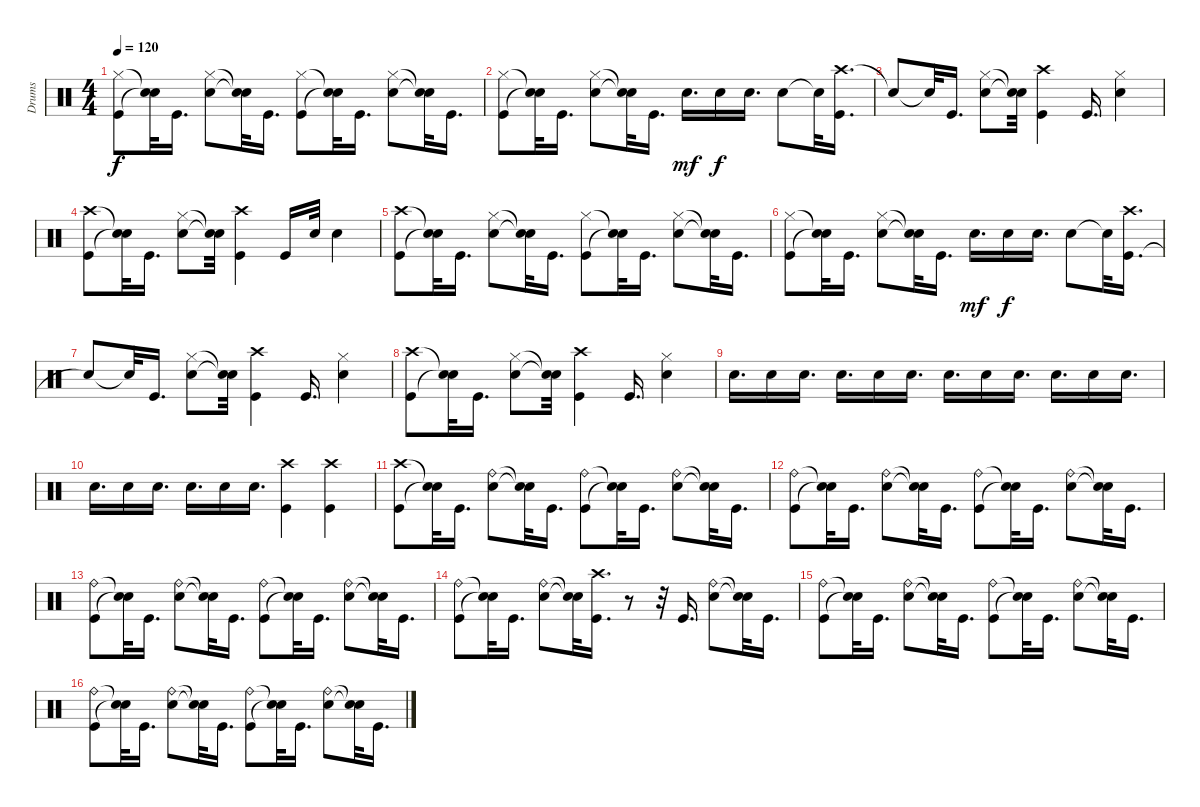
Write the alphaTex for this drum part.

\track ("Drums" "Drums") {instrument percussion}
\staff {score}
\articulation defaults
\ts (4 4)
\tempo 120
\clef neutral
\ks c
("Hi-Hat (closed)" "Kick (hit)").8{dy f} ("Snare (hit)"{t} "Snare (hit)"{t}).32 "Kick (hit)".16{d} ("Hi-Hat (closed)" "Snare (hit) 2").8 ("Snare (hit)"{t} "Snare (hit)"{t}).32 "Kick (hit)".16{d} ("Hi-Hat (closed)" "Kick (hit)").8 ("Snare (hit)"{t} "Snare (hit)"{t}).32 "Kick (hit)".16{d} ("Hi-Hat (closed)" "Snare (hit) 2").8 ("Snare (hit)"{t} "Snare (hit)"{t}).32 "Kick (hit)".16{d} |
("Kick (hit)" "Hi-Hat (closed)").8 ("Snare (hit)"{t} "Snare (hit)"{t}).32 "Kick (hit)".16{d} ("Snare (hit) 2" "Hi-Hat (closed)").8 ("Snare (hit)"{t} "Snare (hit)"{t}).32 "Kick (hit)".16{d} "Snare (hit) 2".16{d dy mf} "Snare (hit) 2".16{dy f} "Snare (hit) 2".16{d} "Snare (hit) 2".8 "Snare (hit)"{t}.32 ("Crash high (hit)" "Kick (hit)").16{d} |
"Snare (hit)"{t}.8 "Snare (hit)"{t}.32 "Kick (hit)".16{d} ("Snare (hit) 2" "Hi-Hat (closed)").8 ("Snare (hit)"{t} "Snare (hit)"{t}).32 ("Kick (hit)" "Crash high (hit)").4 "Kick (hit)".16{d} ("Snare (hit) 2" "Hi-Hat (closed)").4 |
("Kick (hit)" "Crash high (hit)").8 ("Snare (hit)"{t} "Snare (hit)"{t}).32 "Kick (hit)".16{d} ("Hi-Hat (closed)" "Snare (hit) 2").8 ("Snare (hit)"{t} "Snare (hit)"{t}).32 ("Kick (hit)" "Crash high (hit)").4 "Kick (hit)".16 "Snare (hit) 2".32 "Snare (hit) 2".4 |
("Crash high (hit)" "Kick (hit)").8 ("Snare (hit)"{t} "Snare (hit)"{t}).32 "Kick (hit)".16{d} ("Snare (hit) 2" "Hi-Hat (closed)").8 ("Snare (hit)"{t} "Snare (hit)"{t}).32 "Kick (hit)".16{d} ("Hi-Hat (closed)" "Kick (hit)").8 ("Snare (hit)"{t} "Snare (hit)"{t}).32 "Kick (hit)".16{d} ("Hi-Hat (closed)" "Snare (hit) 2").8 ("Snare (hit)"{t} "Snare (hit)"{t}).32 "Kick (hit)".16{d} |
("Kick (hit)" "Hi-Hat (closed)").8 ("Snare (hit)"{t} "Snare (hit)"{t}).32 "Kick (hit)".16{d} ("Snare (hit) 2" "Hi-Hat (closed)").8 ("Snare (hit)"{t} "Snare (hit)"{t}).32 "Kick (hit)".16{d} "Snare (hit) 2".16{d dy mf} "Snare (hit) 2".16{dy f} "Snare (hit) 2".16{d} "Snare (hit) 2".8 "Snare (hit)"{t}.32 ("Kick (hit)" "Crash high (hit)").16{d} |
"Snare (hit)"{t}.8 "Snare (hit)"{t}.32 "Kick (hit)".16{d} ("Hi-Hat (closed)" "Snare (hit) 2").8 ("Snare (hit)"{t} "Snare (hit)"{t}).32 ("Kick (hit)" "Crash high (hit)").4 "Kick (hit)".16{d} ("Snare (hit) 2" "Hi-Hat (closed)").4 |
("Kick (hit)" "Crash high (hit)").8 ("Snare (hit)"{t} "Snare (hit)"{t}).32 "Kick (hit)".16{d} ("Hi-Hat (closed)" "Snare (hit) 2").8 ("Snare (hit)"{t} "Snare (hit)"{t}).32 ("Crash high (hit)" "Kick (hit)").4 "Kick (hit)".16{d} ("Snare (hit) 2" "Hi-Hat (closed)").4 |
"Snare (hit) 2".16{d} "Snare (hit) 2".16 "Snare (hit) 2".16{d} "Snare (hit) 2".16{d} "Snare (hit) 2".16 "Snare (hit) 2".16{d} "Snare (hit) 2".16{d} "Snare (hit) 2".16 "Snare (hit) 2".16{d} "Snare (hit) 2".16{d} "Snare (hit) 2".16 "Snare (hit) 2".16{d} |
"Snare (hit) 2".16{d} "Snare (hit) 2".16 "Snare (hit) 2".16{d} "Snare (hit) 2".16{d} "Snare (hit) 2".16 "Snare (hit) 2".16{d} ("Crash high (hit)" "Kick (hit)").4 ("Kick (hit)" "Crash high (hit)").4 |
("Kick (hit)" "Crash high (hit)").8 ("Snare (hit)"{t} "Snare (hit)"{t}).32 "Kick (hit)".16{d} ("Snare (hit) 2" "Ride (bell)").8 ("Snare (hit)"{t} "Snare (hit)"{t}).32 "Kick (hit)".16{d} ("Ride (bell)" "Kick (hit)").8 ("Snare (hit)"{t} "Snare (hit)"{t}).32 "Kick (hit)".16{d} ("Ride (bell)" "Snare (hit) 2").8 ("Snare (hit)"{t} "Snare (hit)"{t}).32 "Kick (hit)".16{d} |
("Kick (hit)" "Ride (bell)").8 ("Snare (hit)"{t} "Snare (hit)"{t}).32 "Kick (hit)".16{d} ("Ride (bell)" "Snare (hit) 2").8 ("Snare (hit)"{t} "Snare (hit)"{t}).32 "Kick (hit)".16{d} ("Ride (bell)" "Kick (hit)").8 ("Snare (hit)"{t} "Snare (hit)"{t}).32 "Kick (hit)".16{d} ("Ride (bell)" "Snare (hit) 2").8 ("Snare (hit)"{t} "Snare (hit)"{t}).32 "Kick (hit)".16{d} |
("Ride (bell)" "Kick (hit)").8 ("Snare (hit)"{t} "Snare (hit)"{t}).32 "Kick (hit)".16{d} ("Snare (hit) 2" "Ride (bell)").8 ("Snare (hit)"{t} "Snare (hit)"{t}).32 "Kick (hit)".16{d} ("Ride (bell)" "Kick (hit)").8 ("Snare (hit)"{t} "Snare (hit)"{t}).32 "Kick (hit)".16{d} ("Ride (bell)" "Snare (hit) 2").8 ("Snare (hit)"{t} "Snare (hit)"{t}).32 "Kick (hit)".16{d} |
("Kick (hit)" "Ride (bell)").8 ("Snare (hit)"{t} "Snare (hit)"{t}).32 "Kick (hit)".16{d} ("Snare (hit) 2" "Ride (bell)").8 ("Snare (hit)"{t} "Snare (hit)"{t}).32 ("Crash high (hit)" "Kick (hit)").16{d} r.8 r.32 "Kick (hit)".16{d} ("Snare (hit) 2" "Ride (bell)").8 ("Snare (hit)"{t} "Snare (hit)"{t}).32 "Kick (hit)".16{d} |
("Ride (bell)" "Kick (hit)").8 ("Snare (hit)"{t} "Snare (hit)"{t}).32 "Kick (hit)".16{d} ("Ride (bell)" "Snare (hit) 2").8 ("Snare (hit)"{t} "Snare (hit)"{t}).32 "Kick (hit)".16{d} ("Kick (hit)" "Ride (bell)").8 ("Snare (hit)"{t} "Snare (hit)"{t}).32 "Kick (hit)".16{d} ("Snare (hit) 2" "Ride (bell)").8 ("Snare (hit)"{t} "Snare (hit)"{t}).32 "Kick (hit)".16{d} |
("Ride (bell)" "Kick (hit)").8 ("Snare (hit)"{t} "Snare (hit)"{t}).32 "Kick (hit)".16{d} ("Ride (bell)" "Snare (hit) 2").8 ("Snare (hit)"{t} "Snare (hit)"{t}).32 "Kick (hit)".16{d} ("Ride (bell)" "Kick (hit)").8 ("Snare (hit)"{t} "Snare (hit)"{t}).32 "Kick (hit)".16{d} ("Snare (hit) 2" "Ride (bell)").8 ("Snare (hit)"{t} "Snare (hit)"{t}).32 "Kick (hit)".16{d}
